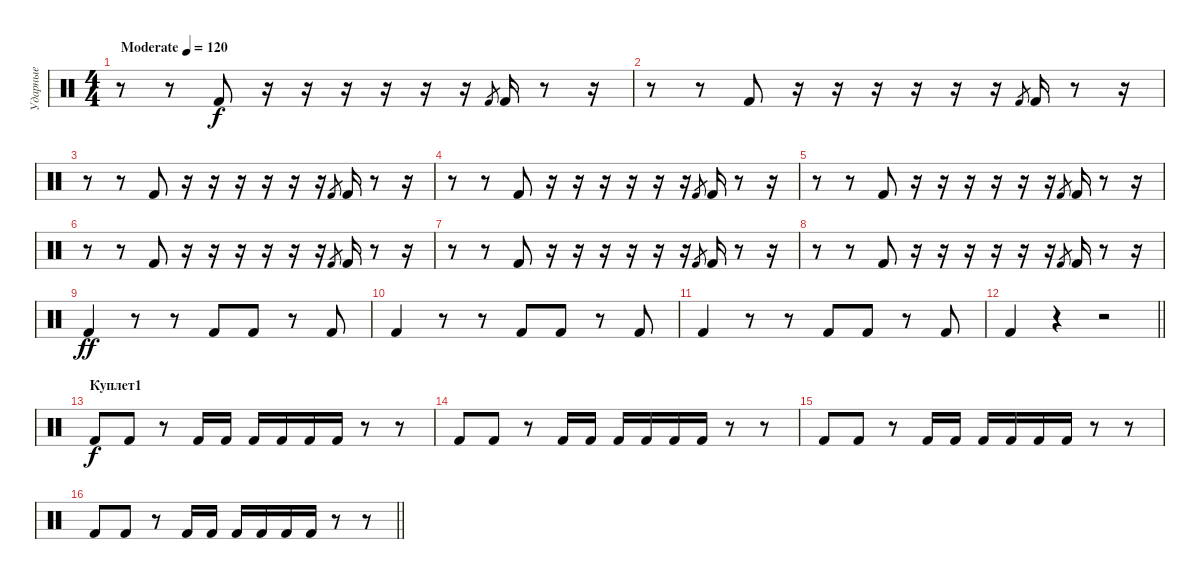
\track ("Ударные" "Ударные") {instrument percussion}
\staff {score}
\articulation defaults
\ts (4 4)
\tempo (120 "Moderate")
\clef neutral
\ks c
r.8{dy f} r.8 "Kick (hit) 2".8 r.16 r.16 r.16 r.16 r.16 r.16 "Kick (hit) 2".8{gr} "Kick (hit) 2".16 r.8 r.16 |
r.8 r.8 "Kick (hit) 2".8 r.16 r.16 r.16 r.16 r.16 r.16 "Kick (hit) 2".8{gr} "Kick (hit) 2".16 r.8 r.16 |
r.8 r.8 "Kick (hit) 2".8 r.16 r.16 r.16 r.16 r.16 r.16 "Kick (hit) 2".8{gr} "Kick (hit) 2".16 r.8 r.16 |
r.8 r.8 "Kick (hit) 2".8 r.16 r.16 r.16 r.16 r.16 r.16 "Kick (hit) 2".8{gr} "Kick (hit) 2".16 r.8 r.16 |
r.8 r.8 "Kick (hit) 2".8 r.16 r.16 r.16 r.16 r.16 r.16 "Kick (hit) 2".8{gr} "Kick (hit) 2".16 r.8 r.16 |
r.8 r.8 "Kick (hit) 2".8 r.16 r.16 r.16 r.16 r.16 r.16 "Kick (hit) 2".8{gr} "Kick (hit) 2".16 r.8 r.16 |
r.8 r.8 "Kick (hit) 2".8 r.16 r.16 r.16 r.16 r.16 r.16 "Kick (hit) 2".8{gr} "Kick (hit) 2".16 r.8 r.16 |
r.8 r.8 "Kick (hit) 2".8 r.16 r.16 r.16 r.16 r.16 r.16 "Kick (hit) 2".8{gr} "Kick (hit) 2".16 r.8 r.16 |
"Kick (hit) 2".4{dy ff} r.8 r.8 "Kick (hit) 2".8 "Kick (hit) 2".8 r.8 "Kick (hit) 2".8 |
"Kick (hit) 2".4 r.8 r.8 "Kick (hit) 2".8 "Kick (hit) 2".8 r.8 "Kick (hit) 2".8 |
"Kick (hit) 2".4 r.8 r.8 "Kick (hit) 2".8 "Kick (hit) 2".8 r.8 "Kick (hit) 2".8 |
\barLineRight lightlight "Kick (hit) 2".4
r.4 r.2 |
\section ("" "Куплет1")
"Kick (hit) 2".8{dy f} "Kick (hit) 2".8 r.8 "Kick (hit) 2".16 "Kick (hit) 2".16 "Kick (hit) 2".16 "Kick (hit) 2".16 "Kick (hit) 2".16 "Kick (hit) 2".16 r.8 r.8 |
"Kick (hit) 2".8 "Kick (hit) 2".8 r.8 "Kick (hit) 2".16 "Kick (hit) 2".16 "Kick (hit) 2".16 "Kick (hit) 2".16 "Kick (hit) 2".16 "Kick (hit) 2".16 r.8 r.8 |
"Kick (hit) 2".8 "Kick (hit) 2".8 r.8 "Kick (hit) 2".16 "Kick (hit) 2".16 "Kick (hit) 2".16 "Kick (hit) 2".16 "Kick (hit) 2".16 "Kick (hit) 2".16 r.8 r.8 |
\barLineRight lightlight "Kick (hit) 2".8 "Kick (hit) 2".8
r.8 "Kick (hit) 2".16 "Kick (hit) 2".16 "Kick (hit) 2".16 "Kick (hit) 2".16 "Kick (hit) 2".16 "Kick (hit) 2".16 r.8 r.8
